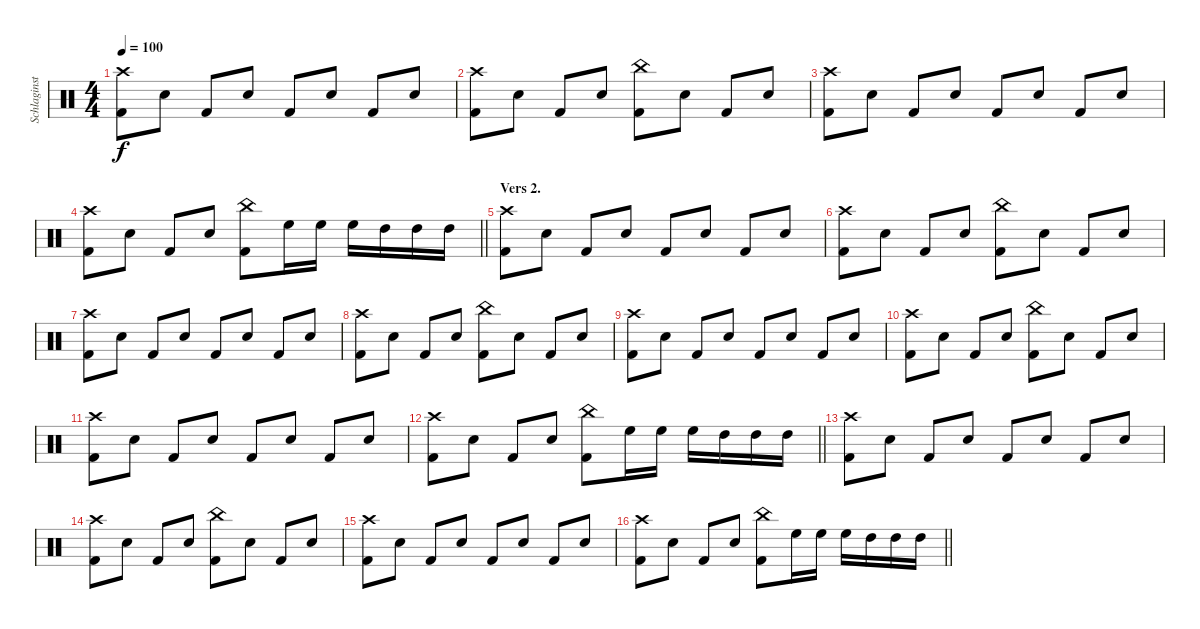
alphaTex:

\track ("Schlaginstrumente - Auswahl" "Schlaginst") {instrument percussion}
\staff {score}
\articulation defaults
\ts (4 4)
\tempo 100
\clef neutral
\ks c
("Crash high (hit)" "Kick (hit) 2").8{dy f} "Snare (hit) 2".8 "Kick (hit) 2".8 "Snare (hit) 2".8 "Kick (hit) 2".8 "Snare (hit) 2".8 "Kick (hit) 2".8 "Snare (hit) 2".8 |
("Crash high (hit)" "Kick (hit) 2").8 "Snare (hit) 2".8 "Kick (hit) 2".8 "Snare (hit) 2".8 ("China (hit)" "Kick (hit) 2").8 "Snare (hit) 2".8 "Kick (hit) 2".8 "Snare (hit) 2".8 |
("Crash high (hit)" "Kick (hit) 2").8 "Snare (hit) 2".8 "Kick (hit) 2".8 "Snare (hit) 2".8 "Kick (hit) 2".8 "Snare (hit) 2".8 "Kick (hit) 2".8 "Snare (hit) 2".8 |
\barLineRight lightlight
("Crash high (hit)" "Kick (hit) 2").8 "Snare (hit) 2".8 "Kick (hit) 2".8 "Snare (hit) 2".8 ("China (hit)" "Kick (hit) 2").8 "High Floor Tom (hit)".16 "High Floor Tom (hit)".16 "High Floor Tom (hit)".16 "High Tom (hit)".16 "High Tom (hit)".16 "High Tom (hit)".16 |
\section ("" "Vers 2.")
("Crash high (hit)" "Kick (hit) 2").8 "Snare (hit) 2".8 "Kick (hit) 2".8 "Snare (hit) 2".8 "Kick (hit) 2".8 "Snare (hit) 2".8 "Kick (hit) 2".8 "Snare (hit) 2".8 |
("Crash high (hit)" "Kick (hit) 2").8 "Snare (hit) 2".8 "Kick (hit) 2".8 "Snare (hit) 2".8 ("China (hit)" "Kick (hit) 2").8 "Snare (hit) 2".8 "Kick (hit) 2".8 "Snare (hit) 2".8 |
("Crash high (hit)" "Kick (hit) 2").8 "Snare (hit) 2".8 "Kick (hit) 2".8 "Snare (hit) 2".8 "Kick (hit) 2".8 "Snare (hit) 2".8 "Kick (hit) 2".8 "Snare (hit) 2".8 |
("Crash high (hit)" "Kick (hit) 2").8 "Snare (hit) 2".8 "Kick (hit) 2".8 "Snare (hit) 2".8 ("China (hit)" "Kick (hit) 2").8 "Snare (hit) 2".8 "Kick (hit) 2".8 "Snare (hit) 2".8 |
("Crash high (hit)" "Kick (hit) 2").8 "Snare (hit) 2".8 "Kick (hit) 2".8 "Snare (hit) 2".8 "Kick (hit) 2".8 "Snare (hit) 2".8 "Kick (hit) 2".8 "Snare (hit) 2".8 |
("Crash high (hit)" "Kick (hit) 2").8 "Snare (hit) 2".8 "Kick (hit) 2".8 "Snare (hit) 2".8 ("China (hit)" "Kick (hit) 2").8 "Snare (hit) 2".8 "Kick (hit) 2".8 "Snare (hit) 2".8 |
("Crash high (hit)" "Kick (hit) 2").8 "Snare (hit) 2".8 "Kick (hit) 2".8 "Snare (hit) 2".8 "Kick (hit) 2".8 "Snare (hit) 2".8 "Kick (hit) 2".8 "Snare (hit) 2".8 |
\barLineRight lightlight
("Crash high (hit)" "Kick (hit) 2").8 "Snare (hit) 2".8 "Kick (hit) 2".8 "Snare (hit) 2".8 ("China (hit)" "Kick (hit) 2").8 "High Floor Tom (hit)".16 "High Floor Tom (hit)".16 "High Floor Tom (hit)".16 "High Tom (hit)".16 "High Tom (hit)".16 "High Tom (hit)".16 |
("Crash high (hit)" "Kick (hit) 2").8 "Snare (hit) 2".8 "Kick (hit) 2".8 "Snare (hit) 2".8 "Kick (hit) 2".8 "Snare (hit) 2".8 "Kick (hit) 2".8 "Snare (hit) 2".8 |
("Crash high (hit)" "Kick (hit) 2").8 "Snare (hit) 2".8 "Kick (hit) 2".8 "Snare (hit) 2".8 ("China (hit)" "Kick (hit) 2").8 "Snare (hit) 2".8 "Kick (hit) 2".8 "Snare (hit) 2".8 |
("Crash high (hit)" "Kick (hit) 2").8 "Snare (hit) 2".8 "Kick (hit) 2".8 "Snare (hit) 2".8 "Kick (hit) 2".8 "Snare (hit) 2".8 "Kick (hit) 2".8 "Snare (hit) 2".8 |
\barLineRight lightlight
("Crash high (hit)" "Kick (hit) 2").8 "Snare (hit) 2".8 "Kick (hit) 2".8 "Snare (hit) 2".8 ("China (hit)" "Kick (hit) 2").8 "High Floor Tom (hit)".16 "High Floor Tom (hit)".16 "High Floor Tom (hit)".16 "High Tom (hit)".16 "High Tom (hit)".16 "High Tom (hit)".16
